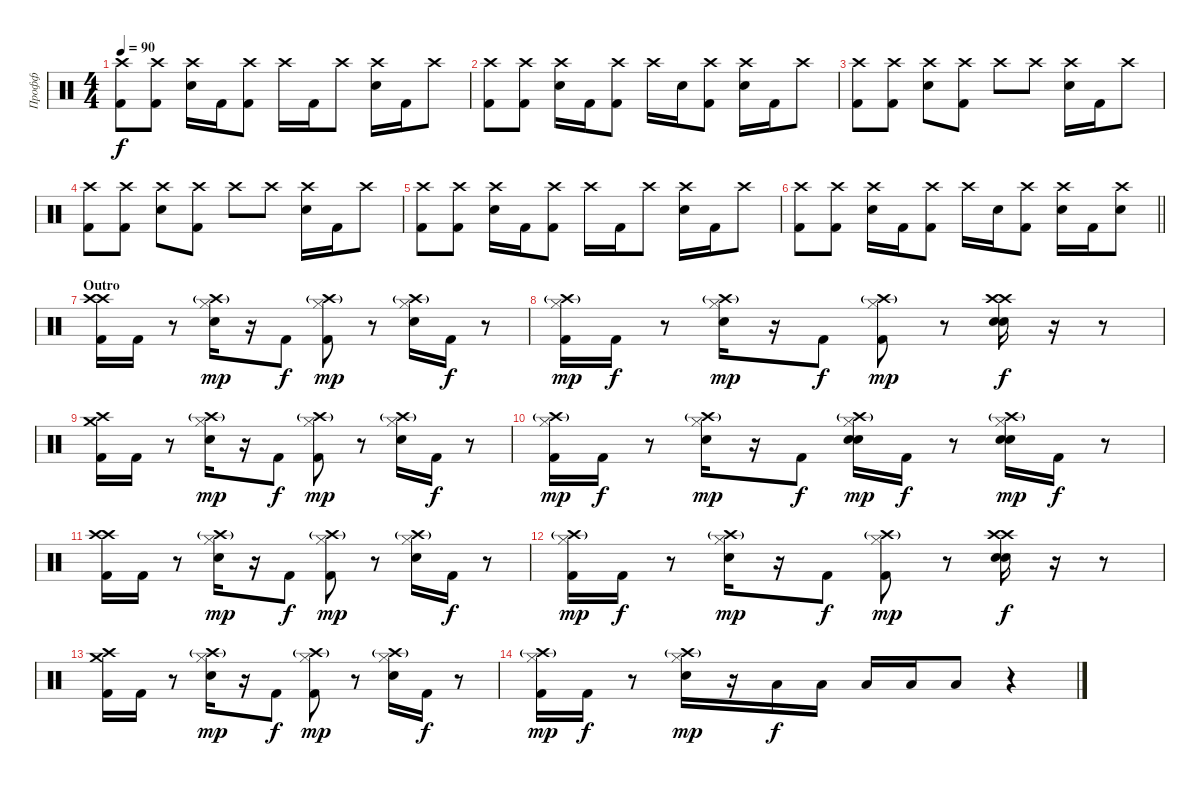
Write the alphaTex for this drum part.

\track ("Профф" "Профф") {instrument percussion}
\staff {score}
\articulation defaults
\ts (4 4)
\tempo 90
\clef neutral
\ks c
("Crash high (hit)" "Kick (hit) 2").8{dy f} ("Crash high (hit)" "Kick (hit) 2").8 ("Crash high (hit)" "Snare (hit) 2").16 "Kick (hit) 2".16 ("Crash high (hit)" "Kick (hit) 2").8 "Crash high (hit)".16 "Kick (hit) 2".16 "Crash high (hit)".8 ("Crash high (hit)" "Snare (hit) 2").16 "Kick (hit) 2".16 "Crash high (hit)".8 |
("Crash high (hit)" "Kick (hit) 2").8 ("Crash high (hit)" "Kick (hit) 2").8 ("Crash high (hit)" "Snare (hit) 2").16 "Kick (hit) 2".16 ("Crash high (hit)" "Kick (hit) 2").8 "Crash high (hit)".16 "Snare (hit) 2".16 ("Crash high (hit)" "Kick (hit) 2").8 ("Crash high (hit)" "Snare (hit) 2").16 "Kick (hit) 2".16 "Crash high (hit)".8 |
("Crash high (hit)" "Kick (hit) 2").8 ("Crash high (hit)" "Kick (hit) 2").8 ("Crash high (hit)" "Snare (hit) 2").8 ("Crash high (hit)" "Kick (hit) 2").8 "Crash high (hit)".8 "Crash high (hit)".8 ("Crash high (hit)" "Snare (hit) 2").16 "Kick (hit) 2".16 "Crash high (hit)".8 |
("Crash high (hit)" "Kick (hit) 2").8 ("Crash high (hit)" "Kick (hit) 2").8 ("Crash high (hit)" "Snare (hit) 2").8 ("Crash high (hit)" "Kick (hit) 2").8 "Crash high (hit)".8 "Crash high (hit)".8 ("Crash high (hit)" "Snare (hit) 2").16 "Kick (hit) 2".16 "Crash high (hit)".8 |
("Crash high (hit)" "Kick (hit) 2").8 ("Crash high (hit)" "Kick (hit) 2").8 ("Crash high (hit)" "Snare (hit) 2").16 "Kick (hit) 2".16 ("Crash high (hit)" "Kick (hit) 2").8 "Crash high (hit)".16 "Kick (hit) 2".16 "Crash high (hit)".8 ("Crash high (hit)" "Snare (hit) 2").16 "Kick (hit) 2".16 "Crash high (hit)".8 |
\barLineRight lightlight
("Crash high (hit)" "Kick (hit) 2").8 ("Crash high (hit)" "Kick (hit) 2").8 ("Crash high (hit)" "Snare (hit) 2").16 "Kick (hit) 2".16 ("Crash high (hit)" "Kick (hit) 2").8 "Crash high (hit)".16 "Snare (hit) 2".16 ("Crash high (hit)" "Kick (hit) 2").8 ("Crash high (hit)" "Snare (hit) 2").16 "Kick (hit) 2".16 ("Crash high (hit)" "Snare (hit) 2").8 |
\section ("" "Outro")
("Crash high (hit)" "Crash high (hit)" "Kick (hit) 2").16 "Kick (hit) 2".16 r.8 ("Crash high (hit)"{g} "Hi-Hat (closed)" "Snare (hit) 2").16{dy mp} r.16 "Kick (hit) 2".8{dy f} ("Crash high (hit)"{g} "Hi-Hat (closed)" "Kick (hit) 2").8{dy mp} r.8 ("Crash high (hit)"{g} "Hi-Hat (closed)" "Snare (hit) 2").16 "Kick (hit) 2".16{dy f} r.8 |
("Crash high (hit)"{g} "Hi-Hat (closed)" "Kick (hit) 2").16{dy mp} "Kick (hit) 2".16{dy f} r.8 ("Crash high (hit)"{g} "Hi-Hat (closed)" "Snare (hit) 2").16{dy mp} r.16 "Kick (hit) 2".8{dy f} ("Crash high (hit)"{g} "Hi-Hat (closed)" "Kick (hit) 2").8{dy mp} r.8 ("Crash high (hit)" "Crash high (hit)" "Snare (hit) 2" "Snare (hit) 2").16{dy f} r.16 r.8 |
("Crash medium (hit)" "Crash high (hit)" "Kick (hit) 2").16 "Kick (hit) 2".16 r.8 ("Crash high (hit)"{g} "Hi-Hat (closed)" "Snare (hit) 2").16{dy mp} r.16 "Kick (hit) 2".8{dy f} ("Crash high (hit)"{g} "Hi-Hat (closed)" "Kick (hit) 2").8{dy mp} r.8 ("Crash high (hit)"{g} "Hi-Hat (closed)" "Snare (hit) 2").16 "Kick (hit) 2".16{dy f} r.8 |
("Crash high (hit)"{g} "Hi-Hat (closed)" "Kick (hit) 2").16{dy mp} "Kick (hit) 2".16{dy f} r.8 ("Crash high (hit)"{g} "Hi-Hat (closed)" "Snare (hit) 2").16{dy mp} r.16 "Kick (hit) 2".8{dy f} ("Crash high (hit)"{g} "Hi-Hat (closed)" "Snare (hit) 2" "Snare (hit) 2").16{dy mp} "Kick (hit) 2".16{dy f} r.8 ("Crash high (hit)"{g} "Hi-Hat (closed)" "Snare (hit) 2" "Snare (hit) 2").16{dy mp} "Kick (hit) 2".16{dy f} r.8 |
("Crash high (hit)" "Crash high (hit)" "Kick (hit) 2").16 "Kick (hit) 2".16 r.8 ("Crash high (hit)"{g} "Hi-Hat (closed)" "Snare (hit) 2").16{dy mp} r.16 "Kick (hit) 2".8{dy f} ("Crash high (hit)"{g} "Hi-Hat (closed)" "Kick (hit) 2").8{dy mp} r.8 ("Crash high (hit)"{g} "Hi-Hat (closed)" "Snare (hit) 2").16 "Kick (hit) 2".16{dy f} r.8 |
("Crash high (hit)"{g} "Hi-Hat (closed)" "Kick (hit) 2").16{dy mp} "Kick (hit) 2".16{dy f} r.8 ("Crash high (hit)"{g} "Hi-Hat (closed)" "Snare (hit) 2").16{dy mp} r.16 "Kick (hit) 2".8{dy f} ("Crash high (hit)"{g} "Hi-Hat (closed)" "Kick (hit) 2").8{dy mp} r.8 ("Crash high (hit)" "Crash high (hit)" "Snare (hit) 2" "Snare (hit) 2").16{dy f} r.16 r.8 |
("Crash medium (hit)" "Crash high (hit)" "Kick (hit) 2").16 "Kick (hit) 2".16 r.8 ("Crash high (hit)"{g} "Hi-Hat (closed)" "Snare (hit) 2").16{dy mp} r.16 "Kick (hit) 2".8{dy f} ("Crash high (hit)"{g} "Hi-Hat (closed)" "Kick (hit) 2").8{dy mp} r.8 ("Crash high (hit)"{g} "Hi-Hat (closed)" "Snare (hit) 2").16 "Kick (hit) 2".16{dy f} r.8 |
("Crash high (hit)"{g} "Hi-Hat (closed)" "Kick (hit) 2").16{dy mp} "Kick (hit) 2".16{dy f} r.8 ("Crash high (hit)"{g} "Hi-Hat (closed)" "Snare (hit) 2").16{dy mp} r.16 "Low Tom (hit)".16{dy f} "Low Tom (hit)".16 "Low Tom (hit)".16 "Low Floor Tom (hit)".16 "Low Tom (hit)".8 r.4
